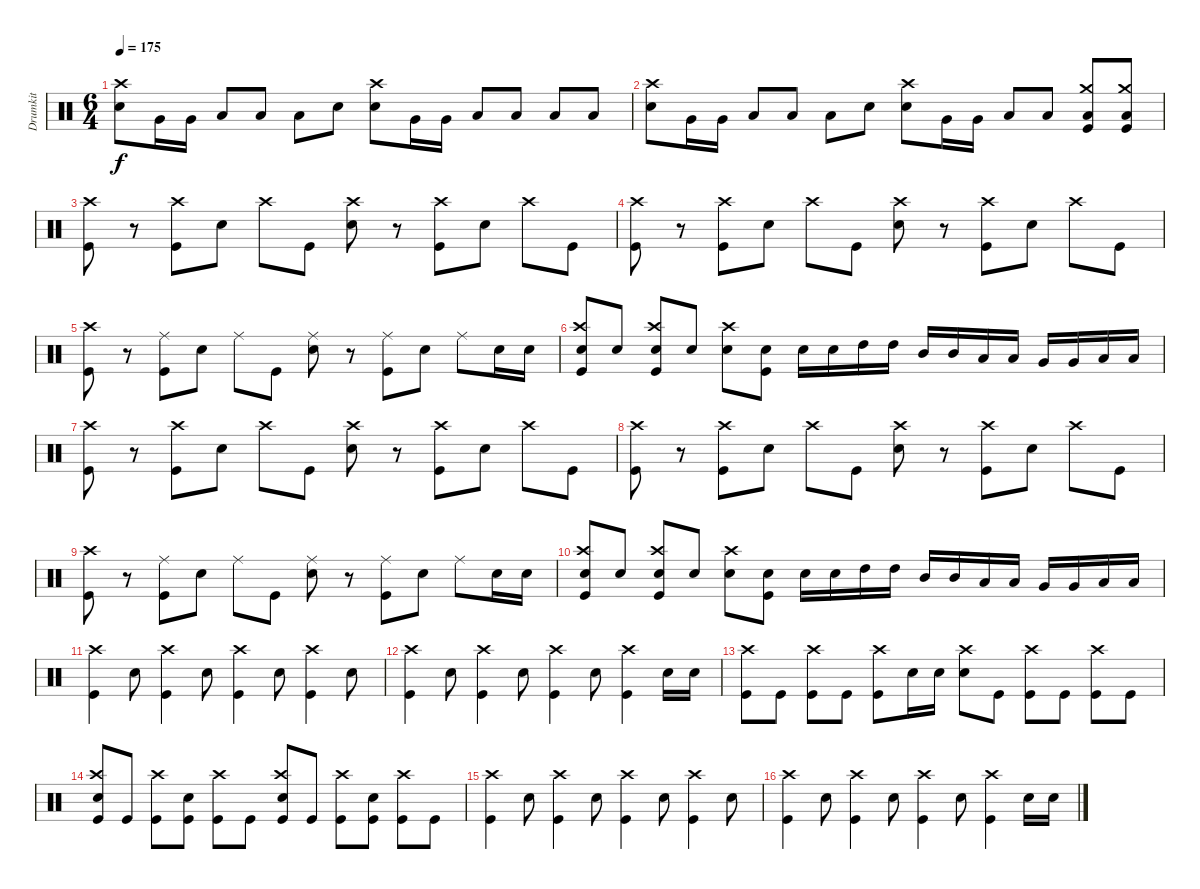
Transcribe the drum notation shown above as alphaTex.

\track ("Drumkit" "Drumkit") {instrument percussion}
\staff {score}
\articulation defaults
\ts (6 4)
\tempo 175
\clef neutral
\ks c
("Snare (hit) 2" "Crash high (hit)").8{dy f} "Very Low Tom (hit)".16 "Very Low Tom (hit)".16 "Low Floor Tom (hit)".8 "Low Floor Tom (hit)".8 "Low Floor Tom (hit)".8 "Snare (hit) 2".8 ("Snare (hit) 2" "Crash high (hit)").8 "Very Low Tom (hit)".16 "Very Low Tom (hit)".16 "Low Floor Tom (hit)".8 "Low Floor Tom (hit)".8 "Low Floor Tom (hit)".8 "Low Floor Tom (hit)".8 |
("Snare (hit) 2" "Crash high (hit)").8 "Very Low Tom (hit)".16 "Very Low Tom (hit)".16 "Low Floor Tom (hit)".8 "Low Floor Tom (hit)".8 "Low Floor Tom (hit)".8 "Snare (hit) 2".8 ("Snare (hit) 2" "Crash high (hit)").8 "Very Low Tom (hit)".16 "Very Low Tom (hit)".16 "Low Floor Tom (hit)".8 "Low Floor Tom (hit)".8 ("Low Floor Tom (hit)" "Crash medium (hit)" "Kick (hit)").8 ("Low Floor Tom (hit)" "Crash medium (hit)" "Kick (hit)").8 |
("Crash high (hit)" "Kick (hit)").8 r.8 ("Crash high (hit)" "Kick (hit)").8 "Snare (hit) 2".8 "Crash high (hit)".8 "Kick (hit)".8 ("Snare (hit) 2" "Crash high (hit)").8 r.8 ("Crash high (hit)" "Kick (hit)").8 "Snare (hit) 2".8 "Crash high (hit)".8 "Kick (hit)".8 |
("Crash high (hit)" "Kick (hit)").8 r.8 ("Crash high (hit)" "Kick (hit)").8 "Snare (hit) 2".8 "Crash high (hit)".8 "Kick (hit)".8 ("Snare (hit) 2" "Crash high (hit)").8 r.8 ("Crash high (hit)" "Kick (hit)").8 "Snare (hit) 2".8 "Crash high (hit)".8 "Kick (hit)".8 |
("Crash high (hit)" "Kick (hit)").8 r.8 ("Ride (middle)" "Kick (hit)").8 "Snare (hit) 2".8 "Ride (middle)".8 "Kick (hit)".8 ("Snare (hit) 2" "Ride (middle)").8 r.8 ("Ride (middle)" "Kick (hit)").8 "Snare (hit) 2".8 "Ride (middle)".8 "Snare (hit) 2".16 "Snare (hit) 2".16 |
("Crash high (hit)" "Kick (hit)" "Snare (hit) 2").8 "Snare (hit) 2".8 ("Crash high (hit)" "Kick (hit)" "Snare (hit) 2").8 "Snare (hit) 2".8 ("Crash high (hit)" "Snare (hit) 2").8 ("Kick (hit)" "Snare (hit) 2").8 "Snare (hit) 2".16 "Snare (hit) 2".16 "High Tom (hit)".16 "High Tom (hit)".16 "Mid Tom (hit)".16 "Mid Tom (hit)".16 "Low Tom (hit)".16 "Low Tom (hit)".16 "Very Low Tom (hit)".16 "Very Low Tom (hit)".16 "Low Floor Tom (hit)".16 "Low Floor Tom (hit)".16 |
("Crash high (hit)" "Kick (hit)").8 r.8 ("Crash high (hit)" "Kick (hit)").8 "Snare (hit) 2".8 "Crash high (hit)".8 "Kick (hit)".8 ("Snare (hit) 2" "Crash high (hit)").8 r.8 ("Crash high (hit)" "Kick (hit)").8 "Snare (hit) 2".8 "Crash high (hit)".8 "Kick (hit)".8 |
("Crash high (hit)" "Kick (hit)").8 r.8 ("Crash high (hit)" "Kick (hit)").8 "Snare (hit) 2".8 "Crash high (hit)".8 "Kick (hit)".8 ("Snare (hit) 2" "Crash high (hit)").8 r.8 ("Crash high (hit)" "Kick (hit)").8 "Snare (hit) 2".8 "Crash high (hit)".8 "Kick (hit)".8 |
("Crash high (hit)" "Kick (hit)").8 r.8 ("Ride (middle)" "Kick (hit)").8 "Snare (hit) 2".8 "Ride (middle)".8 "Kick (hit)".8 ("Snare (hit) 2" "Ride (middle)").8 r.8 ("Ride (middle)" "Kick (hit)").8 "Snare (hit) 2".8 "Ride (middle)".8 "Snare (hit) 2".16 "Snare (hit) 2".16 |
("Crash high (hit)" "Kick (hit)" "Snare (hit) 2").8 "Snare (hit) 2".8 ("Crash high (hit)" "Kick (hit)" "Snare (hit) 2").8 "Snare (hit) 2".8 ("Crash high (hit)" "Snare (hit) 2").8 ("Kick (hit)" "Snare (hit) 2").8 "Snare (hit) 2".16 "Snare (hit) 2".16 "High Tom (hit)".16 "High Tom (hit)".16 "Mid Tom (hit)".16 "Mid Tom (hit)".16 "Low Tom (hit)".16 "Low Tom (hit)".16 "Very Low Tom (hit)".16 "Very Low Tom (hit)".16 "Low Floor Tom (hit)".16 "Low Floor Tom (hit)".16 |
("Kick (hit)" "Crash high (hit)").4 "Snare (hit) 2".8 ("Kick (hit)" "Crash high (hit)").4 "Snare (hit) 2".8 ("Kick (hit)" "Crash high (hit)").4 "Snare (hit) 2".8 ("Kick (hit)" "Crash high (hit)").4 "Snare (hit) 2".8 |
("Kick (hit)" "Crash high (hit)").4 "Snare (hit) 2".8 ("Kick (hit)" "Crash high (hit)").4 "Snare (hit) 2".8 ("Kick (hit)" "Crash high (hit)").4 "Snare (hit) 2".8 ("Kick (hit)" "Crash high (hit)").4 "Snare (hit) 2".16 "Snare (hit) 2".16 |
("Kick (hit)" "Crash high (hit)").8 "Kick (hit)".8 ("Kick (hit)" "Crash high (hit)").8 "Kick (hit)".8 ("Kick (hit)" "Crash high (hit)").8 "Snare (hit) 2".16 "Snare (hit) 2".16 ("Snare (hit) 2" "Crash high (hit)").8 "Kick (hit)".8 ("Kick (hit)" "Crash high (hit)").8 "Kick (hit)".8 ("Kick (hit)" "Crash high (hit)").8 "Kick (hit)".8 |
("Kick (hit)" "Crash high (hit)" "Snare (hit) 2").8 "Kick (hit)".8 ("Kick (hit)" "Crash high (hit)").8 ("Kick (hit)" "Snare (hit) 2").8 ("Kick (hit)" "Crash high (hit)").8 "Kick (hit)".8 ("Kick (hit)" "Crash high (hit)" "Snare (hit) 2").8 "Kick (hit)".8 ("Kick (hit)" "Crash high (hit)").8 ("Kick (hit)" "Snare (hit) 2").8 ("Kick (hit)" "Crash high (hit)").8 "Kick (hit)".8 |
("Kick (hit)" "Crash high (hit)").4 "Snare (hit) 2".8 ("Kick (hit)" "Crash high (hit)").4 "Snare (hit) 2".8 ("Kick (hit)" "Crash high (hit)").4 "Snare (hit) 2".8 ("Kick (hit)" "Crash high (hit)").4 "Snare (hit) 2".8 |
("Kick (hit)" "Crash high (hit)").4 "Snare (hit) 2".8 ("Kick (hit)" "Crash high (hit)").4 "Snare (hit) 2".8 ("Kick (hit)" "Crash high (hit)").4 "Snare (hit) 2".8 ("Kick (hit)" "Crash high (hit)").4 "Snare (hit) 2".16 "Snare (hit) 2".16
